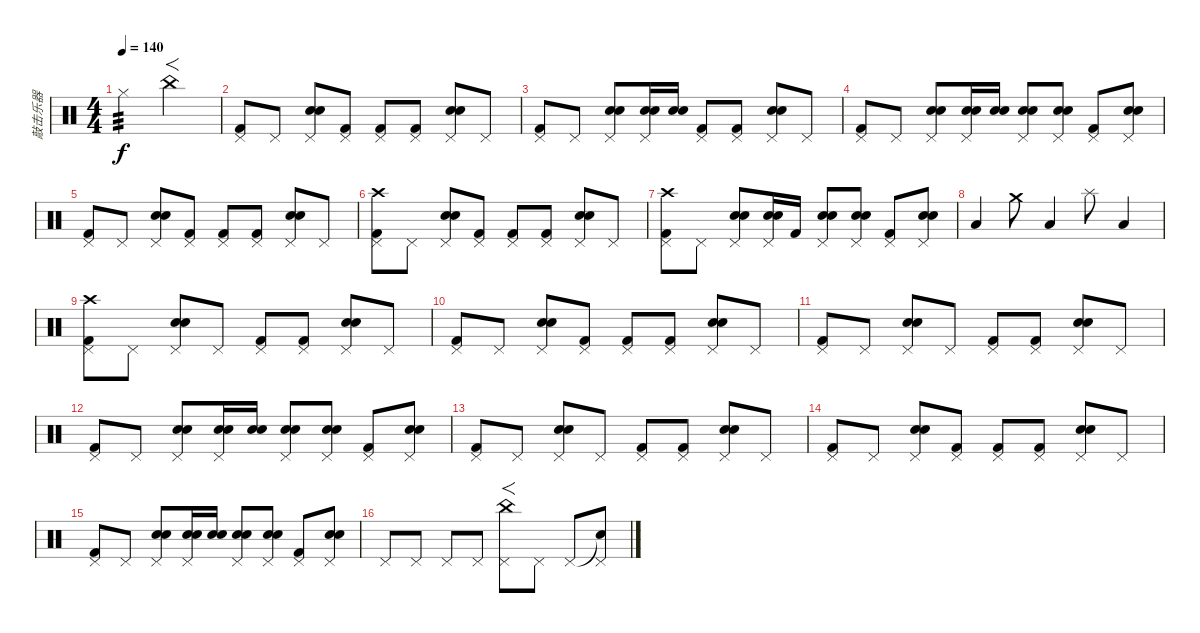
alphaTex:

\track ("敲击乐器" "敲击乐器") {instrument percussion}
\staff {score}
\articulation defaults
\ts (4 4)
\tempo 140
\clef neutral
\ks c "Hi-Hat (closed)".2{tp 3 dy f} "China (hit)".2{f}
|
("Kick (hit) 2" "Pedal Hi-Hat (hit)").8 "Pedal Hi-Hat (hit)".8 ("Snare (hit) 2" "Electric Snare (hit)" "Pedal Hi-Hat (hit)").8 ("Kick (hit) 2" "Pedal Hi-Hat (hit)").8 ("Kick (hit) 2" "Pedal Hi-Hat (hit)").8 ("Kick (hit) 2" "Pedal Hi-Hat (hit)").8 ("Snare (hit) 2" "Electric Snare (hit)" "Pedal Hi-Hat (hit)").8 "Pedal Hi-Hat (hit)".8 |
("Kick (hit) 2" "Pedal Hi-Hat (hit)").8 "Pedal Hi-Hat (hit)".8 ("Snare (hit) 2" "Electric Snare (hit)" "Pedal Hi-Hat (hit)").8 ("Snare (hit) 2" "Electric Snare (hit)" "Pedal Hi-Hat (hit)").16 ("Snare (hit) 2" "Electric Snare (hit)").16 ("Kick (hit) 2" "Pedal Hi-Hat (hit)").8 ("Kick (hit) 2" "Pedal Hi-Hat (hit)").8 ("Snare (hit) 2" "Electric Snare (hit)" "Pedal Hi-Hat (hit)").8 "Pedal Hi-Hat (hit)".8 |
("Kick (hit) 2" "Pedal Hi-Hat (hit)").8 "Pedal Hi-Hat (hit)".8 ("Snare (hit) 2" "Electric Snare (hit)" "Pedal Hi-Hat (hit)").8 ("Snare (hit) 2" "Electric Snare (hit)" "Pedal Hi-Hat (hit)").16 ("Snare (hit) 2" "Electric Snare (hit)").16 ("Snare (hit) 2" "Electric Snare (hit)" "Pedal Hi-Hat (hit)").8 ("Snare (hit) 2" "Electric Snare (hit)" "Pedal Hi-Hat (hit)").8 ("Kick (hit) 2" "Pedal Hi-Hat (hit)").8 ("Snare (hit) 2" "Electric Snare (hit)" "Pedal Hi-Hat (hit)").8 |
("Kick (hit) 2" "Pedal Hi-Hat (hit)").8 "Pedal Hi-Hat (hit)".8 ("Snare (hit) 2" "Electric Snare (hit)" "Pedal Hi-Hat (hit)").8 ("Kick (hit) 2" "Pedal Hi-Hat (hit)").8 ("Kick (hit) 2" "Pedal Hi-Hat (hit)").8 ("Kick (hit) 2" "Pedal Hi-Hat (hit)").8 ("Snare (hit) 2" "Electric Snare (hit)" "Pedal Hi-Hat (hit)").8 "Pedal Hi-Hat (hit)".8 |
("Kick (hit) 2" "Crash high (hit)" "Pedal Hi-Hat (hit)").8 "Pedal Hi-Hat (hit)".8 ("Snare (hit) 2" "Electric Snare (hit)" "Pedal Hi-Hat (hit)").8 ("Kick (hit) 2" "Pedal Hi-Hat (hit)").8 ("Kick (hit) 2" "Pedal Hi-Hat (hit)").8 ("Kick (hit) 2" "Pedal Hi-Hat (hit)").8 ("Snare (hit) 2" "Electric Snare (hit)" "Pedal Hi-Hat (hit)").8 "Pedal Hi-Hat (hit)".8 |
("Kick (hit) 2" "Crash high (hit)" "Pedal Hi-Hat (hit)").8 "Pedal Hi-Hat (hit)".8 ("Snare (hit) 2" "Electric Snare (hit)" "Pedal Hi-Hat (hit)").8 ("Snare (hit) 2" "Electric Snare (hit)" "Pedal Hi-Hat (hit)").16 "Kick (hit) 2".16 ("Snare (hit) 2" "Electric Snare (hit)" "Pedal Hi-Hat (hit)").8 ("Snare (hit) 2" "Electric Snare (hit)" "Pedal Hi-Hat (hit)").8 ("Kick (hit) 2" "Pedal Hi-Hat (hit)").8 ("Snare (hit) 2" "Electric Snare (hit)" "Pedal Hi-Hat (hit)").8 |
"Low Floor Tom (hit)".4 "Crash medium (hit)".8 "Low Floor Tom (hit)".4 "Splash (hit)".8 "Low Floor Tom (hit)".4 |
("Kick (hit) 2" "Crash high (hit)" "Pedal Hi-Hat (hit)").8 "Pedal Hi-Hat (hit)".8 ("Snare (hit) 2" "Electric Snare (hit)" "Pedal Hi-Hat (hit)").8 "Pedal Hi-Hat (hit)".8 ("Kick (hit) 2" "Pedal Hi-Hat (hit)").8 ("Kick (hit) 2" "Pedal Hi-Hat (hit)").8 ("Snare (hit) 2" "Electric Snare (hit)" "Pedal Hi-Hat (hit)").8 "Pedal Hi-Hat (hit)".8 |
("Kick (hit) 2" "Pedal Hi-Hat (hit)").8 "Pedal Hi-Hat (hit)".8 ("Snare (hit) 2" "Electric Snare (hit)" "Pedal Hi-Hat (hit)").8 ("Kick (hit) 2" "Pedal Hi-Hat (hit)").8 ("Kick (hit) 2" "Pedal Hi-Hat (hit)").8 ("Kick (hit) 2" "Pedal Hi-Hat (hit)").8 ("Snare (hit) 2" "Electric Snare (hit)" "Pedal Hi-Hat (hit)").8 "Pedal Hi-Hat (hit)".8 |
("Kick (hit) 2" "Pedal Hi-Hat (hit)").8 "Pedal Hi-Hat (hit)".8 ("Snare (hit) 2" "Electric Snare (hit)" "Pedal Hi-Hat (hit)").8 "Pedal Hi-Hat (hit)".8 ("Kick (hit) 2" "Pedal Hi-Hat (hit)").8 ("Kick (hit) 2" "Pedal Hi-Hat (hit)").8 ("Snare (hit) 2" "Electric Snare (hit)" "Pedal Hi-Hat (hit)").8 "Pedal Hi-Hat (hit)".8 |
("Kick (hit) 2" "Pedal Hi-Hat (hit)").8 "Pedal Hi-Hat (hit)".8 ("Snare (hit) 2" "Electric Snare (hit)" "Pedal Hi-Hat (hit)").8 ("Snare (hit) 2" "Electric Snare (hit)" "Pedal Hi-Hat (hit)").16 ("Snare (hit) 2" "Electric Snare (hit)").16 ("Snare (hit) 2" "Electric Snare (hit)" "Pedal Hi-Hat (hit)").8 ("Snare (hit) 2" "Electric Snare (hit)" "Pedal Hi-Hat (hit)").8 ("Kick (hit) 2" "Pedal Hi-Hat (hit)").8 ("Snare (hit) 2" "Electric Snare (hit)" "Pedal Hi-Hat (hit)").8 |
("Kick (hit) 2" "Pedal Hi-Hat (hit)").8 "Pedal Hi-Hat (hit)".8 ("Snare (hit) 2" "Electric Snare (hit)" "Pedal Hi-Hat (hit)").8 "Pedal Hi-Hat (hit)".8 ("Kick (hit) 2" "Pedal Hi-Hat (hit)").8 ("Kick (hit) 2" "Pedal Hi-Hat (hit)").8 ("Snare (hit) 2" "Electric Snare (hit)" "Pedal Hi-Hat (hit)").8 "Pedal Hi-Hat (hit)".8 |
("Kick (hit) 2" "Pedal Hi-Hat (hit)").8 "Pedal Hi-Hat (hit)".8 ("Snare (hit) 2" "Electric Snare (hit)" "Pedal Hi-Hat (hit)").8 ("Kick (hit) 2" "Pedal Hi-Hat (hit)").8 ("Kick (hit) 2" "Pedal Hi-Hat (hit)").8 ("Kick (hit) 2" "Pedal Hi-Hat (hit)").8 ("Snare (hit) 2" "Electric Snare (hit)" "Pedal Hi-Hat (hit)").8 "Pedal Hi-Hat (hit)".8 |
("Kick (hit) 2" "Pedal Hi-Hat (hit)").8 "Pedal Hi-Hat (hit)".8 ("Snare (hit) 2" "Electric Snare (hit)" "Pedal Hi-Hat (hit)").8 ("Snare (hit) 2" "Electric Snare (hit)" "Pedal Hi-Hat (hit)").16 ("Snare (hit) 2" "Electric Snare (hit)").16 ("Snare (hit) 2" "Electric Snare (hit)" "Pedal Hi-Hat (hit)").8 ("Snare (hit) 2" "Electric Snare (hit)" "Pedal Hi-Hat (hit)").8 ("Kick (hit) 2" "Pedal Hi-Hat (hit)").8 ("Snare (hit) 2" "Electric Snare (hit)" "Pedal Hi-Hat (hit)").8 |
"Pedal Hi-Hat (hit)".8 "Pedal Hi-Hat (hit)".8 "Pedal Hi-Hat (hit)".8 "Pedal Hi-Hat (hit)".8 ("China (hit)" "Pedal Hi-Hat (hit)").8{f} "Pedal Hi-Hat (hit)".8 "Pedal Hi-Hat (hit)".8 ("Snare (hit)"{t} "Pedal Hi-Hat (hit)").8
